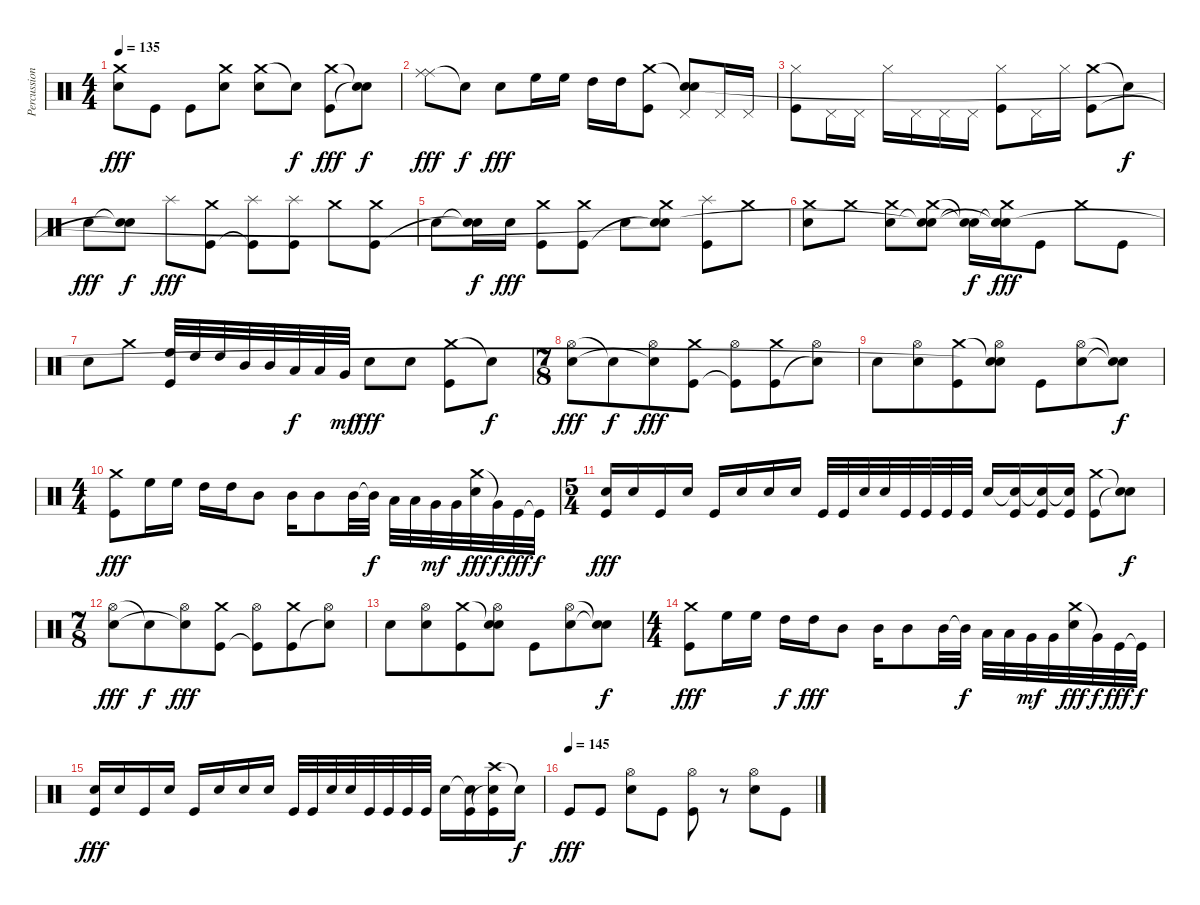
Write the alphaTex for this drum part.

\track ("Percussions" "Percussion") {instrument percussion}
\staff {score}
\articulation defaults
\ts (4 4)
\tempo 135
\clef neutral
\ks c
("Crash medium (hit)" "Electric Snare (hit)").8{dy fff} "Kick (hit)".8 "Kick (hit)".8 ("Crash medium (hit)" "Electric Snare (hit)").8 ("Crash medium (hit)" "Electric Snare (hit)").8 "Electric Snare (hit)"{t}.8{dy f} ("Crash medium (hit)" "Kick (hit)").8{dy fff} ("Snare (hit)"{t} "Snare (hit)"{t}).8{dy f} |
("Ride (middle)" "Ride (middle)").8{dy fff} "Snare (hit)"{t}.8{dy f} "Electric Snare (hit)".8{dy fff} "High Floor Tom (hit)".16{volume 11} "High Floor Tom (hit)".16 "High Tom (hit)".16 "High Tom (hit)".16 ("Crash medium (hit)" "Kick (hit)").8{volume 16} ("Snare (hit)"{t} "Pedal Hi-Hat (hit)" "Snare (hit)").8 "Pedal Hi-Hat (hit)".16 "Pedal Hi-Hat (hit)".16 |
("Hi-Hat (closed)" "Kick (hit)").8 "Pedal Hi-Hat (hit)".16 "Pedal Hi-Hat (hit)".16 "Hi-Hat (closed)".16 "Pedal Hi-Hat (hit)".16 "Pedal Hi-Hat (hit)".16 "Pedal Hi-Hat (hit)".16 ("Hi-Hat (closed)" "Kick (hit)").8 "Pedal Hi-Hat (hit)".16 "Hi-Hat (closed)".16 ("Crash medium (hit)" "Kick (hit)").8 "Snare (hit)"{t}.8{dy f} |
"Electric Snare (hit)".8{dy fff} ("Electric Snare (hit)"{t} "Electric Snare (hit)"{t}).8{dy f} "Splash (hit)".8{dy fff} ("Crash medium (hit)" "Kick (hit)").8 ("Splash (hit)" "Kick (hit)"{t}).8 ("Splash (hit)" "Kick (hit)").8 "Crash medium (hit)".8 ("Crash medium (hit)" "Kick (hit)").8 |
"Electric Snare (hit)".8 ("Snare (hit)"{t} "Snare (hit)"{t}).16{dy f} "Electric Snare (hit)".16{dy fff} ("Crash medium (hit)" "Kick (hit)").8 ("Crash medium (hit)" "Kick (hit)").8 "Electric Snare (hit)".8 ("Crash medium (hit)" "Snare (hit)"{t} "Snare (hit)"{t}).8 ("Splash (hit)" "Kick (hit)").8 "Crash medium (hit)".8 |
("Crash medium (hit)" "Electric Snare (hit)").8 "Crash medium (hit)".8 ("Crash medium (hit)" "Electric Snare (hit)").8 ("Crash medium (hit)" "Electric Snare (hit)"{t} "Electric Snare (hit)"{t}).8 ("Snare (hit)"{t} "Snare (hit)"{t}).16{dy f} ("Crash medium (hit)" "Snare (hit)"{t} "Snare (hit)"{t}).16{dy fff} "Kick (hit)".8 "Crash medium (hit)".8 "Kick (hit)".8 |
"Electric Snare (hit)".8 "Crash medium (hit)".8 ("High Floor Tom (hit)" "Kick (hit)").32 "High Tom (hit)".32{volume 11} "High Tom (hit)".32 "Mid Tom (hit)".32 "Mid Tom (hit)".32 "Low Tom (hit)".32{dy f} "Low Tom (hit)".32 "Very Low Tom (hit)".32{dy mf} "Electric Snare (hit)".8{dy fff volume 16} "Electric Snare (hit)".8 ("Crash medium (hit)" "Kick (hit)").8 "Snare (hit)"{t}.8{dy f} |
\ts (7 8)
("Hi-Hat (open)" "Electric Snare (hit)").8{dy fff} "Snare (hit)"{t}.8{dy f} ("Hi-Hat (open)" "Snare (hit)"{t}).8{dy fff} ("Crash medium (hit)" "Kick (hit)").8 ("Hi-Hat (open)" "Kick (hit)"{t}).8 ("Crash medium (hit)" "Kick (hit)").8 ("Hi-Hat (open)" "Snare (hit)"{t}).8 |
"Electric Snare (hit)".8 ("Hi-Hat (open)" "Electric Snare (hit)").8 ("Crash medium (hit)" "Kick (hit)").8 ("Snare (hit)"{t} "Hi-Hat (open)" "Snare (hit)"{t}).8 "Kick (hit)".8 ("Hi-Hat (open)" "Electric Snare (hit)").8 ("Snare (hit)"{t} "Snare (hit)"{t}).8{dy f} |
\ts (4 4)
("Crash medium (hit)" "Kick (hit)").8{dy fff} "High Floor Tom (hit)".16{volume 11} "High Floor Tom (hit)".16 "High Tom (hit)".16 "High Tom (hit)".16 "Mid Tom (hit)".8 "Mid Tom (hit)".16 "Mid Tom (hit)".8 "Mid Tom (hit)".32 "Mid Tom (hit)"{t}.32{dy f} "Low Tom (hit)".32 "Low Tom (hit)".32 "Very Low Tom (hit)".32{dy mf} "Very Low Tom (hit)".32 ("Crash medium (hit)" "Electric Snare (hit)").32{dy fff volume 16} "Very Low Tom (hit)"{t}.32{dy f} "Kick (hit)".32{dy fff} "Kick (hit)"{t}.32{dy f} |
\ts (5 4)
("Electric Snare (hit)" "Kick (hit)").16{dy fff} "Electric Snare (hit)".16 "Kick (hit)".16 "Electric Snare (hit)".16 "Kick (hit)".16 "Electric Snare (hit)".16 "Electric Snare (hit)".16 "Electric Snare (hit)".16 "Kick (hit)".32 "Kick (hit)".32 "Electric Snare (hit)".32 "Electric Snare (hit)".32 "Kick (hit)".32 "Kick (hit)".32 "Kick (hit)".32 "Kick (hit)".32 "Electric Snare (hit)".16 ("Electric Snare (hit)"{t} "Kick (hit)").16 ("Snare (hit)"{t} "Kick (hit)").16 ("Snare (hit)"{t} "Kick (hit)").16 ("Crash medium (hit)" "Kick (hit)").8 ("Snare (hit)"{t} "Snare (hit)"{t}).8{dy f} |
\ts (7 8)
("Hi-Hat (open)" "Electric Snare (hit)").8{dy fff} "Snare (hit)"{t}.8{dy f} ("Hi-Hat (open)" "Snare (hit)"{t}).8{dy fff} ("Crash medium (hit)" "Kick (hit)").8 ("Hi-Hat (open)" "Kick (hit)"{t}).8 ("Crash medium (hit)" "Kick (hit)").8 ("Hi-Hat (open)" "Snare (hit)"{t}).8 |
"Electric Snare (hit)".8 ("Hi-Hat (open)" "Electric Snare (hit)").8 ("Crash medium (hit)" "Kick (hit)").8 ("Snare (hit)"{t} "Hi-Hat (open)" "Snare (hit)").8 "Kick (hit)".8 ("Hi-Hat (open)" "Electric Snare (hit)").8 ("Snare (hit)"{t} "Snare (hit)"{t}).8{dy f} |
\ts (4 4)
("Crash medium (hit)" "Kick (hit)").8{dy fff} "High Floor Tom (hit)".16{volume 11} "High Floor Tom (hit)".16 "High Tom (hit)".16{dy f} "High Tom (hit)".16{dy fff} "Mid Tom (hit)".8 "Mid Tom (hit)".16 "Mid Tom (hit)".8 "Mid Tom (hit)".32 "Mid Tom (hit)"{t}.32{dy f} "Low Tom (hit)".32 "Low Tom (hit)".32 "Very Low Tom (hit)".32{dy mf} "Very Low Tom (hit)".32 ("Crash medium (hit)" "Electric Snare (hit)").32{dy fff volume 16} "Very Low Tom (hit)"{t}.32{dy f} "Kick (hit)".32{dy fff} "Kick (hit)"{t}.32{dy f} |
("Electric Snare (hit)" "Kick (hit)").16{dy fff} "Electric Snare (hit)".16 "Kick (hit)".16 "Electric Snare (hit)".16 "Kick (hit)".16 "Electric Snare (hit)".16 "Electric Snare (hit)".16 "Electric Snare (hit)".16 "Kick (hit)".32 "Kick (hit)".32 "Electric Snare (hit)".32 "Electric Snare (hit)".32 "Kick (hit)".32 "Kick (hit)".32 "Kick (hit)".32 "Kick (hit)".32 "Electric Snare (hit)".16 ("Electric Snare (hit)"{t} "Kick (hit)").16 ("Crash high (hit)" "Snare (hit)"{t} "Kick (hit)").16 "Snare (hit)"{t}.16{dy f} |
\tempo (145)
"Kick (hit)".8{dy fff} "Kick (hit)".8 ("Hi-Hat (open)" "Electric Snare (hit)").8 "Kick (hit)".8 ("Hi-Hat (open)" "Kick (hit)").8 r.8 ("Hi-Hat (open)" "Electric Snare (hit)").8 "Kick (hit)".8
